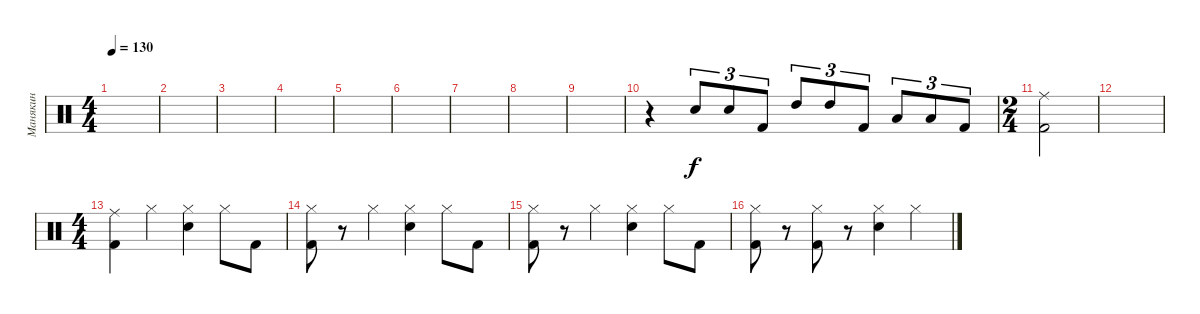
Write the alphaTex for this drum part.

\track ("Манякин" "Манякин") {instrument percussion}
\staff {score}
\articulation defaults
\ts (4 4)
\tempo 130
\clef neutral
\ks c
|
|
|
|
|
|
|
|
|
r.4 "Electric Snare (hit)".8{tu (3 2)} "Electric Snare (hit)".8{tu (3 2)} "Kick (hit) 2".8{tu (3 2)} "High Tom (hit)".8{tu (3 2)} "High Tom (hit)".8{tu (3 2)} "Kick (hit) 2".8{tu (3 2)} "Low Tom (hit)".8{tu (3 2)} "Low Tom (hit)".8{tu (3 2)} "Kick (hit) 2".8{tu (3 2)} |
\ts (2 4)
("Ride (middle)" "Kick (hit) 2").2 |
|
\ts (4 4)
("Ride (middle)" "Kick (hit) 2").4 "Hi-Hat (closed)".4 ("Hi-Hat (closed)" "Electric Snare (hit)").4 "Hi-Hat (closed)".8 "Kick (hit) 2".8 |
("Hi-Hat (closed)" "Kick (hit) 2").8 r.8 "Hi-Hat (closed)".4 ("Hi-Hat (closed)" "Electric Snare (hit)").4 "Hi-Hat (closed)".8 "Kick (hit) 2".8 |
("Hi-Hat (closed)" "Kick (hit) 2").8 r.8 "Hi-Hat (closed)".4 ("Hi-Hat (closed)" "Electric Snare (hit)").4 "Hi-Hat (closed)".8 "Kick (hit) 2".8 |
("Hi-Hat (closed)" "Kick (hit) 2").8 r.8 ("Hi-Hat (closed)" "Kick (hit) 2").8 r.8 ("Hi-Hat (closed)" "Electric Snare (hit)").4 "Hi-Hat (closed)".4
